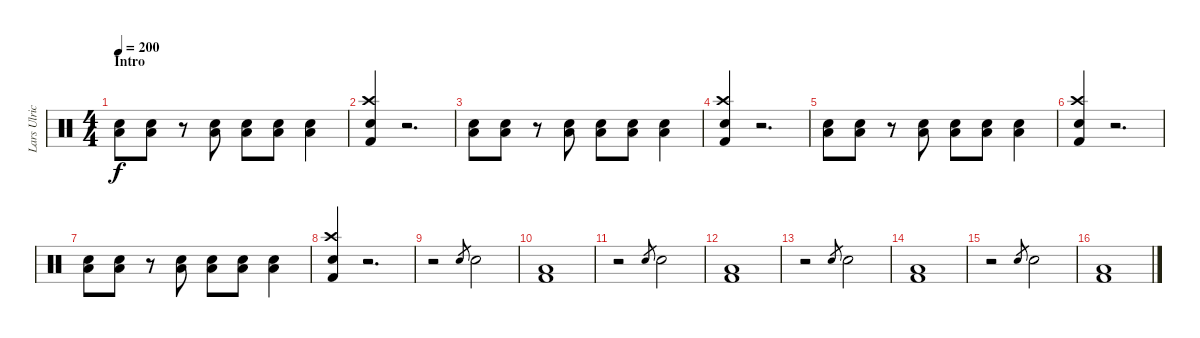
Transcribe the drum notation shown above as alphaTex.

\track ("Lars Ulrich" "Lars Ulric") {instrument percussion}
\staff {score}
\articulation defaults
\ts (4 4)
\section ("" "Intro")
\tempo 200
\clef neutral
\ks c
("Electric Snare (hit)" "Low Floor Tom (hit)").8{dy f} ("Electric Snare (hit)" "Low Floor Tom (hit)").8 r.8 ("Electric Snare (hit)" "Low Floor Tom (hit)").8 ("Electric Snare (hit)" "Low Floor Tom (hit)").8 ("Electric Snare (hit)" "Low Floor Tom (hit)").8 ("Electric Snare (hit)" "Low Floor Tom (hit)").4 |
("Crash high (hit)" "Electric Snare (hit)" "Kick (hit) 2").4 r.2{d} |
("Electric Snare (hit)" "Low Floor Tom (hit)").8 ("Electric Snare (hit)" "Low Floor Tom (hit)").8 r.8 ("Electric Snare (hit)" "Low Floor Tom (hit)").8 ("Electric Snare (hit)" "Low Floor Tom (hit)").8 ("Electric Snare (hit)" "Low Floor Tom (hit)").8 ("Electric Snare (hit)" "Low Floor Tom (hit)").4 |
("Crash high (hit)" "Electric Snare (hit)" "Kick (hit) 2").4 r.2{d} |
("Electric Snare (hit)" "Low Floor Tom (hit)").8 ("Electric Snare (hit)" "Low Floor Tom (hit)").8 r.8 ("Electric Snare (hit)" "Low Floor Tom (hit)").8 ("Electric Snare (hit)" "Low Floor Tom (hit)").8 ("Electric Snare (hit)" "Low Floor Tom (hit)").8 ("Electric Snare (hit)" "Low Floor Tom (hit)").4 |
("Crash high (hit)" "Electric Snare (hit)" "Kick (hit) 2").4 r.2{d} |
("Electric Snare (hit)" "Low Floor Tom (hit)").8 ("Electric Snare (hit)" "Low Floor Tom (hit)").8 r.8 ("Electric Snare (hit)" "Low Floor Tom (hit)").8 ("Electric Snare (hit)" "Low Floor Tom (hit)").8 ("Electric Snare (hit)" "Low Floor Tom (hit)").8 ("Electric Snare (hit)" "Low Floor Tom (hit)").4 |
("Crash high (hit)" "Electric Snare (hit)" "Kick (hit) 2").4 r.2{d} |
r.2 "Electric Snare (hit)".8{gr} "Electric Snare (hit)".2 |
("Low Floor Tom (hit)" "Kick (hit) 2").1 |
r.2 "Electric Snare (hit)".8{gr} "Electric Snare (hit)".2 |
("Low Floor Tom (hit)" "Kick (hit) 2").1 |
r.2 "Electric Snare (hit)".8{gr} "Electric Snare (hit)".2 |
("Low Floor Tom (hit)" "Kick (hit) 2").1 |
r.2 "Electric Snare (hit)".8{gr} "Electric Snare (hit)".2 |
("Low Floor Tom (hit)" "Kick (hit) 2").1
